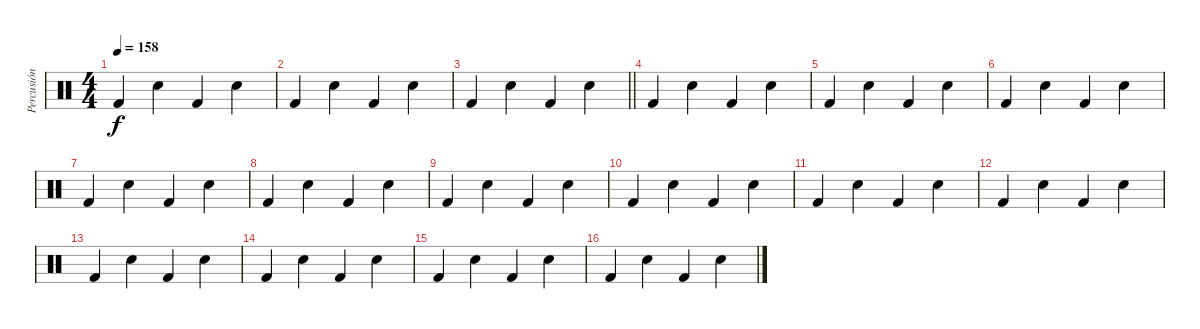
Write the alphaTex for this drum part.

\track ("Percusión" "Percusión") {instrument percussion}
\staff {score}
\articulation defaults
\ts (4 4)
\tempo 158
\clef neutral
\ks c "Kick (hit) 2".4{dy f} "Electric Snare (hit)".4 "Kick (hit) 2".4 "Electric Snare (hit)".4
|
"Kick (hit) 2".4{volume 16} "Electric Snare (hit)".4 "Kick (hit) 2".4 "Electric Snare (hit)".4 |
\barLineRight lightlight "Kick (hit) 2".4{volume 16} "Electric Snare (hit)".4 "Kick (hit) 2".4 "Electric Snare (hit)".4
|
\section ("" "")
"Kick (hit) 2".4{volume 16} "Electric Snare (hit)".4 "Kick (hit) 2".4 "Electric Snare (hit)".4 |
"Kick (hit) 2".4 "Electric Snare (hit)".4 "Kick (hit) 2".4 "Electric Snare (hit)".4 |
"Kick (hit) 2".4{volume 16} "Electric Snare (hit)".4 "Kick (hit) 2".4 "Electric Snare (hit)".4 |
"Kick (hit) 2".4 "Electric Snare (hit)".4 "Kick (hit) 2".4 "Electric Snare (hit)".4 |
"Kick (hit) 2".4{volume 16} "Electric Snare (hit)".4 "Kick (hit) 2".4 "Electric Snare (hit)".4 |
"Kick (hit) 2".4 "Electric Snare (hit)".4 "Kick (hit) 2".4 "Electric Snare (hit)".4 |
"Kick (hit) 2".4{volume 16} "Electric Snare (hit)".4 "Kick (hit) 2".4 "Electric Snare (hit)".4 |
"Kick (hit) 2".4 "Electric Snare (hit)".4 "Kick (hit) 2".4 "Electric Snare (hit)".4 |
"Kick (hit) 2".4{volume 16} "Electric Snare (hit)".4 "Kick (hit) 2".4 "Electric Snare (hit)".4 |
"Kick (hit) 2".4 "Electric Snare (hit)".4 "Kick (hit) 2".4 "Electric Snare (hit)".4 |
"Kick (hit) 2".4{volume 16} "Electric Snare (hit)".4 "Kick (hit) 2".4 "Electric Snare (hit)".4 |
"Kick (hit) 2".4 "Electric Snare (hit)".4 "Kick (hit) 2".4 "Electric Snare (hit)".4 |
"Kick (hit) 2".4{volume 16} "Electric Snare (hit)".4 "Kick (hit) 2".4 "Electric Snare (hit)".4
